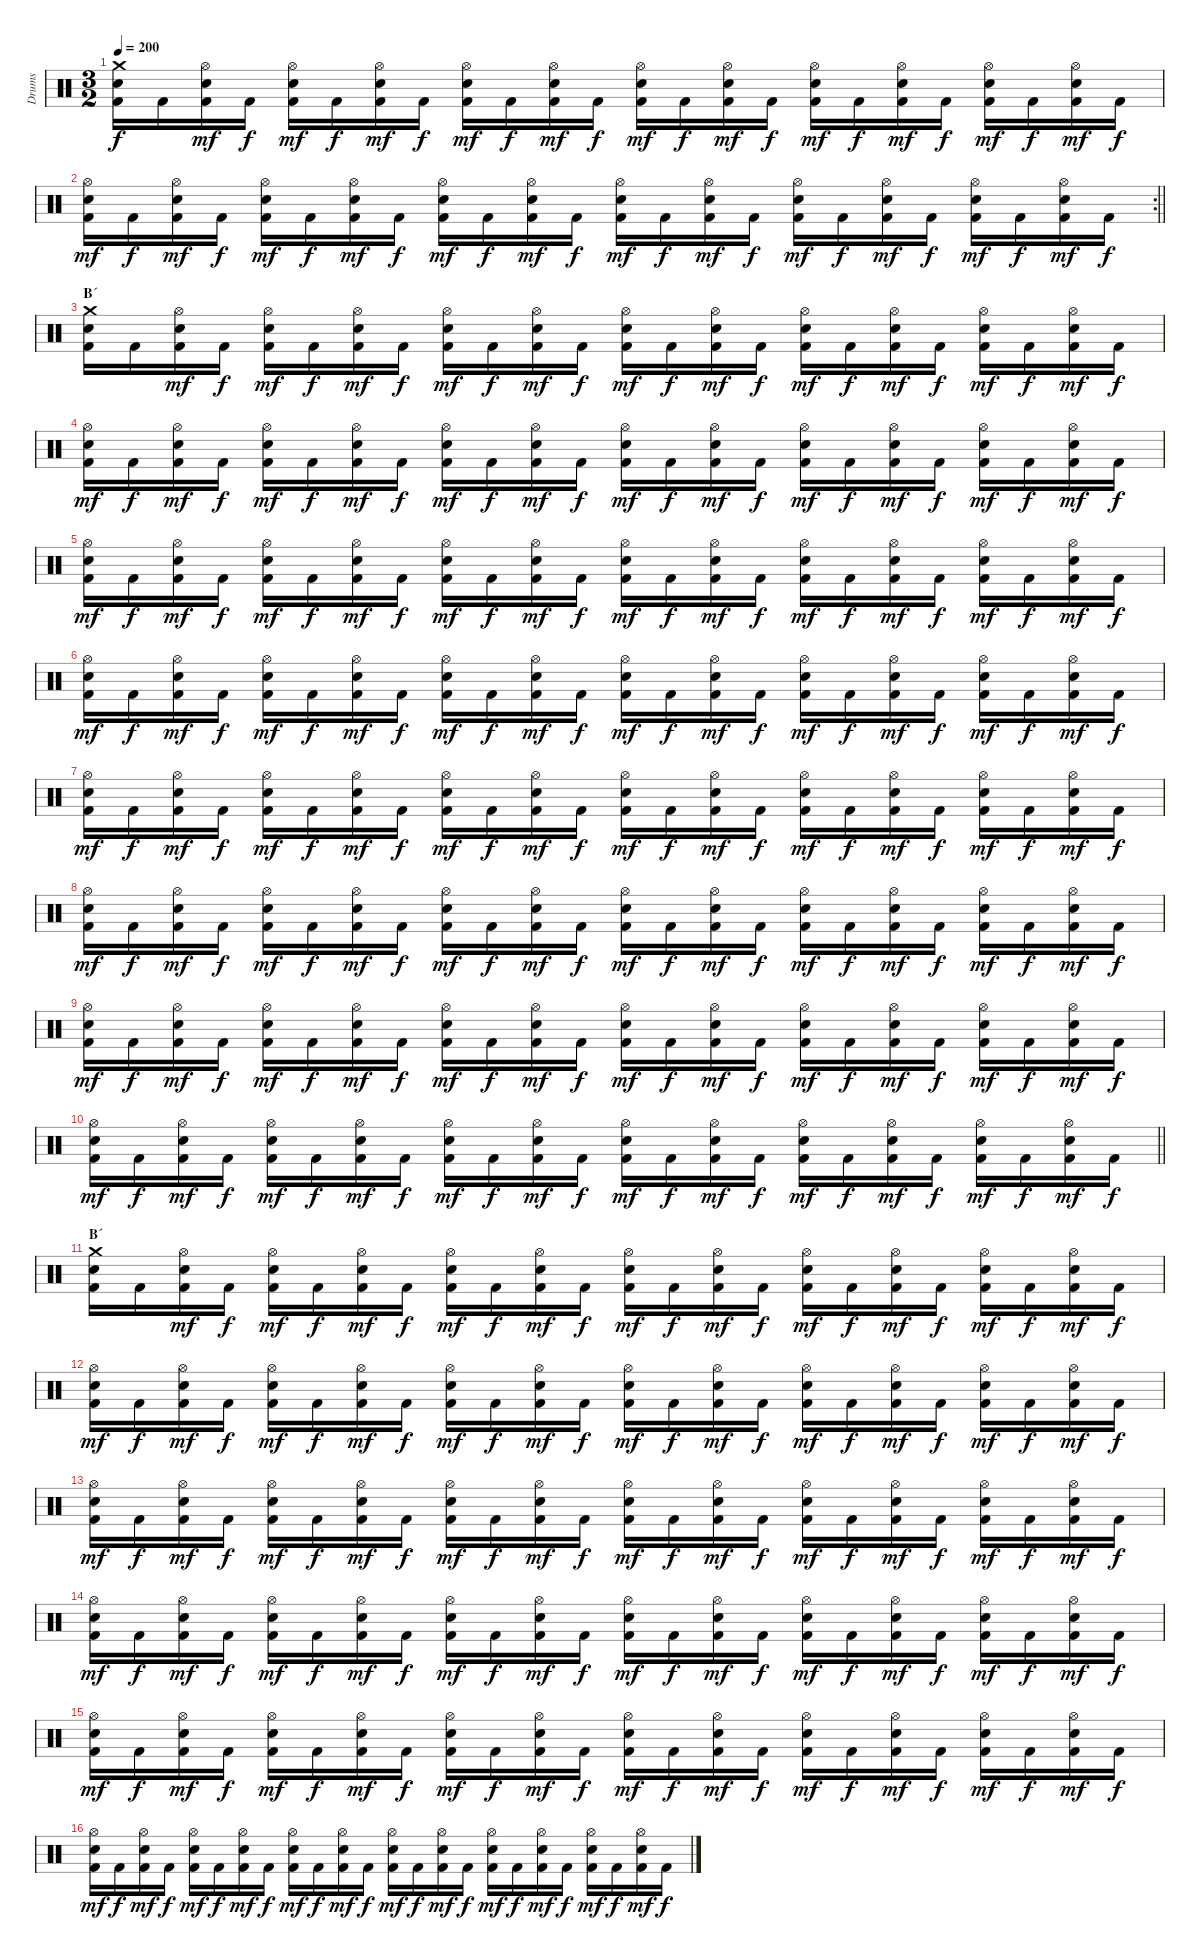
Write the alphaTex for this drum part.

\track ("Drums" "Drums") {instrument percussion}
\staff {score}
\articulation defaults
\ts (3 2)
\tempo 200
\clef neutral
\ks c
("Crash medium (hit)" "Electric Snare (hit)" "Kick (hit) 2").16{dy f} "Kick (hit) 2".16 ("Hi-Hat (open)" "Electric Snare (hit)" "Kick (hit) 2").16{dy mf} "Kick (hit) 2".16{dy f} ("Hi-Hat (open)" "Electric Snare (hit)" "Kick (hit) 2").16{dy mf} "Kick (hit) 2".16{dy f} ("Hi-Hat (open)" "Electric Snare (hit)" "Kick (hit) 2").16{dy mf} "Kick (hit) 2".16{dy f} ("Hi-Hat (open)" "Electric Snare (hit)" "Kick (hit) 2").16{dy mf} "Kick (hit) 2".16{dy f} ("Hi-Hat (open)" "Electric Snare (hit)" "Kick (hit) 2").16{dy mf} "Kick (hit) 2".16{dy f} ("Hi-Hat (open)" "Electric Snare (hit)" "Kick (hit) 2").16{dy mf} "Kick (hit) 2".16{dy f} ("Hi-Hat (open)" "Electric Snare (hit)" "Kick (hit) 2").16{dy mf} "Kick (hit) 2".16{dy f} ("Hi-Hat (open)" "Electric Snare (hit)" "Kick (hit) 2").16{dy mf} "Kick (hit) 2".16{dy f} ("Hi-Hat (open)" "Electric Snare (hit)" "Kick (hit) 2").16{dy mf} "Kick (hit) 2".16{dy f} ("Hi-Hat (open)" "Electric Snare (hit)" "Kick (hit) 2").16{dy mf} "Kick (hit) 2".16{dy f} ("Hi-Hat (open)" "Electric Snare (hit)" "Kick (hit) 2").16{dy mf} "Kick (hit) 2".16{dy f} |
\rc 2
\barLineRight lightlight
("Hi-Hat (open)" "Electric Snare (hit)" "Kick (hit) 2").16{dy mf} "Kick (hit) 2".16{dy f} ("Hi-Hat (open)" "Electric Snare (hit)" "Kick (hit) 2").16{dy mf} "Kick (hit) 2".16{dy f} ("Hi-Hat (open)" "Electric Snare (hit)" "Kick (hit) 2").16{dy mf} "Kick (hit) 2".16{dy f} ("Hi-Hat (open)" "Electric Snare (hit)" "Kick (hit) 2").16{dy mf} "Kick (hit) 2".16{dy f} ("Hi-Hat (open)" "Electric Snare (hit)" "Kick (hit) 2").16{dy mf} "Kick (hit) 2".16{dy f} ("Hi-Hat (open)" "Electric Snare (hit)" "Kick (hit) 2").16{dy mf} "Kick (hit) 2".16{dy f} ("Hi-Hat (open)" "Electric Snare (hit)" "Kick (hit) 2").16{dy mf} "Kick (hit) 2".16{dy f} ("Hi-Hat (open)" "Electric Snare (hit)" "Kick (hit) 2").16{dy mf} "Kick (hit) 2".16{dy f} ("Hi-Hat (open)" "Electric Snare (hit)" "Kick (hit) 2").16{dy mf} "Kick (hit) 2".16{dy f} ("Hi-Hat (open)" "Electric Snare (hit)" "Kick (hit) 2").16{dy mf} "Kick (hit) 2".16{dy f} ("Hi-Hat (open)" "Electric Snare (hit)" "Kick (hit) 2").16{dy mf} "Kick (hit) 2".16{dy f} ("Hi-Hat (open)" "Electric Snare (hit)" "Kick (hit) 2").16{dy mf} "Kick (hit) 2".16{dy f} |
\section ("" "B´")
("Crash medium (hit)" "Electric Snare (hit)" "Kick (hit) 2").16 "Kick (hit) 2".16 ("Hi-Hat (open)" "Electric Snare (hit)" "Kick (hit) 2").16{dy mf} "Kick (hit) 2".16{dy f} ("Hi-Hat (open)" "Electric Snare (hit)" "Kick (hit) 2").16{dy mf} "Kick (hit) 2".16{dy f} ("Hi-Hat (open)" "Electric Snare (hit)" "Kick (hit) 2").16{dy mf} "Kick (hit) 2".16{dy f} ("Hi-Hat (open)" "Electric Snare (hit)" "Kick (hit) 2").16{dy mf} "Kick (hit) 2".16{dy f} ("Hi-Hat (open)" "Electric Snare (hit)" "Kick (hit) 2").16{dy mf} "Kick (hit) 2".16{dy f} ("Hi-Hat (open)" "Electric Snare (hit)" "Kick (hit) 2").16{dy mf} "Kick (hit) 2".16{dy f} ("Hi-Hat (open)" "Electric Snare (hit)" "Kick (hit) 2").16{dy mf} "Kick (hit) 2".16{dy f} ("Hi-Hat (open)" "Electric Snare (hit)" "Kick (hit) 2").16{dy mf} "Kick (hit) 2".16{dy f} ("Hi-Hat (open)" "Electric Snare (hit)" "Kick (hit) 2").16{dy mf} "Kick (hit) 2".16{dy f} ("Hi-Hat (open)" "Electric Snare (hit)" "Kick (hit) 2").16{dy mf} "Kick (hit) 2".16{dy f} ("Hi-Hat (open)" "Electric Snare (hit)" "Kick (hit) 2").16{dy mf} "Kick (hit) 2".16{dy f} |
("Hi-Hat (open)" "Electric Snare (hit)" "Kick (hit) 2").16{dy mf} "Kick (hit) 2".16{dy f} ("Hi-Hat (open)" "Electric Snare (hit)" "Kick (hit) 2").16{dy mf} "Kick (hit) 2".16{dy f} ("Hi-Hat (open)" "Electric Snare (hit)" "Kick (hit) 2").16{dy mf} "Kick (hit) 2".16{dy f} ("Hi-Hat (open)" "Electric Snare (hit)" "Kick (hit) 2").16{dy mf} "Kick (hit) 2".16{dy f} ("Hi-Hat (open)" "Electric Snare (hit)" "Kick (hit) 2").16{dy mf} "Kick (hit) 2".16{dy f} ("Hi-Hat (open)" "Electric Snare (hit)" "Kick (hit) 2").16{dy mf} "Kick (hit) 2".16{dy f} ("Hi-Hat (open)" "Electric Snare (hit)" "Kick (hit) 2").16{dy mf} "Kick (hit) 2".16{dy f} ("Hi-Hat (open)" "Electric Snare (hit)" "Kick (hit) 2").16{dy mf} "Kick (hit) 2".16{dy f} ("Hi-Hat (open)" "Electric Snare (hit)" "Kick (hit) 2").16{dy mf} "Kick (hit) 2".16{dy f} ("Hi-Hat (open)" "Electric Snare (hit)" "Kick (hit) 2").16{dy mf} "Kick (hit) 2".16{dy f} ("Hi-Hat (open)" "Electric Snare (hit)" "Kick (hit) 2").16{dy mf} "Kick (hit) 2".16{dy f} ("Hi-Hat (open)" "Electric Snare (hit)" "Kick (hit) 2").16{dy mf} "Kick (hit) 2".16{dy f} |
("Hi-Hat (open)" "Electric Snare (hit)" "Kick (hit) 2").16{dy mf} "Kick (hit) 2".16{dy f} ("Hi-Hat (open)" "Electric Snare (hit)" "Kick (hit) 2").16{dy mf} "Kick (hit) 2".16{dy f} ("Hi-Hat (open)" "Electric Snare (hit)" "Kick (hit) 2").16{dy mf} "Kick (hit) 2".16{dy f} ("Hi-Hat (open)" "Electric Snare (hit)" "Kick (hit) 2").16{dy mf} "Kick (hit) 2".16{dy f} ("Hi-Hat (open)" "Electric Snare (hit)" "Kick (hit) 2").16{dy mf} "Kick (hit) 2".16{dy f} ("Hi-Hat (open)" "Electric Snare (hit)" "Kick (hit) 2").16{dy mf} "Kick (hit) 2".16{dy f} ("Hi-Hat (open)" "Electric Snare (hit)" "Kick (hit) 2").16{dy mf} "Kick (hit) 2".16{dy f} ("Hi-Hat (open)" "Electric Snare (hit)" "Kick (hit) 2").16{dy mf} "Kick (hit) 2".16{dy f} ("Hi-Hat (open)" "Electric Snare (hit)" "Kick (hit) 2").16{dy mf} "Kick (hit) 2".16{dy f} ("Hi-Hat (open)" "Electric Snare (hit)" "Kick (hit) 2").16{dy mf} "Kick (hit) 2".16{dy f} ("Hi-Hat (open)" "Electric Snare (hit)" "Kick (hit) 2").16{dy mf} "Kick (hit) 2".16{dy f} ("Hi-Hat (open)" "Electric Snare (hit)" "Kick (hit) 2").16{dy mf} "Kick (hit) 2".16{dy f} |
("Hi-Hat (open)" "Electric Snare (hit)" "Kick (hit) 2").16{dy mf} "Kick (hit) 2".16{dy f} ("Hi-Hat (open)" "Electric Snare (hit)" "Kick (hit) 2").16{dy mf} "Kick (hit) 2".16{dy f} ("Hi-Hat (open)" "Electric Snare (hit)" "Kick (hit) 2").16{dy mf} "Kick (hit) 2".16{dy f} ("Hi-Hat (open)" "Electric Snare (hit)" "Kick (hit) 2").16{dy mf} "Kick (hit) 2".16{dy f} ("Hi-Hat (open)" "Electric Snare (hit)" "Kick (hit) 2").16{dy mf} "Kick (hit) 2".16{dy f} ("Hi-Hat (open)" "Electric Snare (hit)" "Kick (hit) 2").16{dy mf} "Kick (hit) 2".16{dy f} ("Hi-Hat (open)" "Electric Snare (hit)" "Kick (hit) 2").16{dy mf} "Kick (hit) 2".16{dy f} ("Hi-Hat (open)" "Electric Snare (hit)" "Kick (hit) 2").16{dy mf} "Kick (hit) 2".16{dy f} ("Hi-Hat (open)" "Electric Snare (hit)" "Kick (hit) 2").16{dy mf} "Kick (hit) 2".16{dy f} ("Hi-Hat (open)" "Electric Snare (hit)" "Kick (hit) 2").16{dy mf} "Kick (hit) 2".16{dy f} ("Hi-Hat (open)" "Electric Snare (hit)" "Kick (hit) 2").16{dy mf} "Kick (hit) 2".16{dy f} ("Hi-Hat (open)" "Electric Snare (hit)" "Kick (hit) 2").16{dy mf} "Kick (hit) 2".16{dy f} |
("Hi-Hat (open)" "Electric Snare (hit)" "Kick (hit) 2").16{dy mf} "Kick (hit) 2".16{dy f} ("Hi-Hat (open)" "Electric Snare (hit)" "Kick (hit) 2").16{dy mf} "Kick (hit) 2".16{dy f} ("Hi-Hat (open)" "Electric Snare (hit)" "Kick (hit) 2").16{dy mf} "Kick (hit) 2".16{dy f} ("Hi-Hat (open)" "Electric Snare (hit)" "Kick (hit) 2").16{dy mf} "Kick (hit) 2".16{dy f} ("Hi-Hat (open)" "Electric Snare (hit)" "Kick (hit) 2").16{dy mf} "Kick (hit) 2".16{dy f} ("Hi-Hat (open)" "Electric Snare (hit)" "Kick (hit) 2").16{dy mf} "Kick (hit) 2".16{dy f} ("Hi-Hat (open)" "Electric Snare (hit)" "Kick (hit) 2").16{dy mf} "Kick (hit) 2".16{dy f} ("Hi-Hat (open)" "Electric Snare (hit)" "Kick (hit) 2").16{dy mf} "Kick (hit) 2".16{dy f} ("Hi-Hat (open)" "Electric Snare (hit)" "Kick (hit) 2").16{dy mf} "Kick (hit) 2".16{dy f} ("Hi-Hat (open)" "Electric Snare (hit)" "Kick (hit) 2").16{dy mf} "Kick (hit) 2".16{dy f} ("Hi-Hat (open)" "Electric Snare (hit)" "Kick (hit) 2").16{dy mf} "Kick (hit) 2".16{dy f} ("Hi-Hat (open)" "Electric Snare (hit)" "Kick (hit) 2").16{dy mf} "Kick (hit) 2".16{dy f} |
("Hi-Hat (open)" "Electric Snare (hit)" "Kick (hit) 2").16{dy mf} "Kick (hit) 2".16{dy f} ("Hi-Hat (open)" "Electric Snare (hit)" "Kick (hit) 2").16{dy mf} "Kick (hit) 2".16{dy f} ("Hi-Hat (open)" "Electric Snare (hit)" "Kick (hit) 2").16{dy mf} "Kick (hit) 2".16{dy f} ("Hi-Hat (open)" "Electric Snare (hit)" "Kick (hit) 2").16{dy mf} "Kick (hit) 2".16{dy f} ("Hi-Hat (open)" "Electric Snare (hit)" "Kick (hit) 2").16{dy mf} "Kick (hit) 2".16{dy f} ("Hi-Hat (open)" "Electric Snare (hit)" "Kick (hit) 2").16{dy mf} "Kick (hit) 2".16{dy f} ("Hi-Hat (open)" "Electric Snare (hit)" "Kick (hit) 2").16{dy mf} "Kick (hit) 2".16{dy f} ("Hi-Hat (open)" "Electric Snare (hit)" "Kick (hit) 2").16{dy mf} "Kick (hit) 2".16{dy f} ("Hi-Hat (open)" "Electric Snare (hit)" "Kick (hit) 2").16{dy mf} "Kick (hit) 2".16{dy f} ("Hi-Hat (open)" "Electric Snare (hit)" "Kick (hit) 2").16{dy mf} "Kick (hit) 2".16{dy f} ("Hi-Hat (open)" "Electric Snare (hit)" "Kick (hit) 2").16{dy mf} "Kick (hit) 2".16{dy f} ("Hi-Hat (open)" "Electric Snare (hit)" "Kick (hit) 2").16{dy mf} "Kick (hit) 2".16{dy f} |
("Hi-Hat (open)" "Electric Snare (hit)" "Kick (hit) 2").16{dy mf} "Kick (hit) 2".16{dy f} ("Hi-Hat (open)" "Electric Snare (hit)" "Kick (hit) 2").16{dy mf} "Kick (hit) 2".16{dy f} ("Hi-Hat (open)" "Electric Snare (hit)" "Kick (hit) 2").16{dy mf} "Kick (hit) 2".16{dy f} ("Hi-Hat (open)" "Electric Snare (hit)" "Kick (hit) 2").16{dy mf} "Kick (hit) 2".16{dy f} ("Hi-Hat (open)" "Electric Snare (hit)" "Kick (hit) 2").16{dy mf} "Kick (hit) 2".16{dy f} ("Hi-Hat (open)" "Electric Snare (hit)" "Kick (hit) 2").16{dy mf} "Kick (hit) 2".16{dy f} ("Hi-Hat (open)" "Electric Snare (hit)" "Kick (hit) 2").16{dy mf} "Kick (hit) 2".16{dy f} ("Hi-Hat (open)" "Electric Snare (hit)" "Kick (hit) 2").16{dy mf} "Kick (hit) 2".16{dy f} ("Hi-Hat (open)" "Electric Snare (hit)" "Kick (hit) 2").16{dy mf} "Kick (hit) 2".16{dy f} ("Hi-Hat (open)" "Electric Snare (hit)" "Kick (hit) 2").16{dy mf} "Kick (hit) 2".16{dy f} ("Hi-Hat (open)" "Electric Snare (hit)" "Kick (hit) 2").16{dy mf} "Kick (hit) 2".16{dy f} ("Hi-Hat (open)" "Electric Snare (hit)" "Kick (hit) 2").16{dy mf} "Kick (hit) 2".16{dy f} |
\barLineRight lightlight
("Hi-Hat (open)" "Electric Snare (hit)" "Kick (hit) 2").16{dy mf} "Kick (hit) 2".16{dy f} ("Hi-Hat (open)" "Electric Snare (hit)" "Kick (hit) 2").16{dy mf} "Kick (hit) 2".16{dy f} ("Hi-Hat (open)" "Electric Snare (hit)" "Kick (hit) 2").16{dy mf} "Kick (hit) 2".16{dy f} ("Hi-Hat (open)" "Electric Snare (hit)" "Kick (hit) 2").16{dy mf} "Kick (hit) 2".16{dy f} ("Hi-Hat (open)" "Electric Snare (hit)" "Kick (hit) 2").16{dy mf} "Kick (hit) 2".16{dy f} ("Hi-Hat (open)" "Electric Snare (hit)" "Kick (hit) 2").16{dy mf} "Kick (hit) 2".16{dy f} ("Hi-Hat (open)" "Electric Snare (hit)" "Kick (hit) 2").16{dy mf} "Kick (hit) 2".16{dy f} ("Hi-Hat (open)" "Electric Snare (hit)" "Kick (hit) 2").16{dy mf} "Kick (hit) 2".16{dy f} ("Hi-Hat (open)" "Electric Snare (hit)" "Kick (hit) 2").16{dy mf} "Kick (hit) 2".16{dy f} ("Hi-Hat (open)" "Electric Snare (hit)" "Kick (hit) 2").16{dy mf} "Kick (hit) 2".16{dy f} ("Hi-Hat (open)" "Electric Snare (hit)" "Kick (hit) 2").16{dy mf} "Kick (hit) 2".16{dy f} ("Hi-Hat (open)" "Electric Snare (hit)" "Kick (hit) 2").16{dy mf} "Kick (hit) 2".16{dy f} |
\section ("" "B´")
("Crash medium (hit)" "Electric Snare (hit)" "Kick (hit) 2").16 "Kick (hit) 2".16 ("Hi-Hat (open)" "Electric Snare (hit)" "Kick (hit) 2").16{dy mf} "Kick (hit) 2".16{dy f} ("Hi-Hat (open)" "Electric Snare (hit)" "Kick (hit) 2").16{dy mf} "Kick (hit) 2".16{dy f} ("Hi-Hat (open)" "Electric Snare (hit)" "Kick (hit) 2").16{dy mf} "Kick (hit) 2".16{dy f} ("Hi-Hat (open)" "Electric Snare (hit)" "Kick (hit) 2").16{dy mf} "Kick (hit) 2".16{dy f} ("Hi-Hat (open)" "Electric Snare (hit)" "Kick (hit) 2").16{dy mf} "Kick (hit) 2".16{dy f} ("Hi-Hat (open)" "Electric Snare (hit)" "Kick (hit) 2").16{dy mf} "Kick (hit) 2".16{dy f} ("Hi-Hat (open)" "Electric Snare (hit)" "Kick (hit) 2").16{dy mf} "Kick (hit) 2".16{dy f} ("Hi-Hat (open)" "Electric Snare (hit)" "Kick (hit) 2").16{dy mf} "Kick (hit) 2".16{dy f} ("Hi-Hat (open)" "Electric Snare (hit)" "Kick (hit) 2").16{dy mf} "Kick (hit) 2".16{dy f} ("Hi-Hat (open)" "Electric Snare (hit)" "Kick (hit) 2").16{dy mf} "Kick (hit) 2".16{dy f} ("Hi-Hat (open)" "Electric Snare (hit)" "Kick (hit) 2").16{dy mf} "Kick (hit) 2".16{dy f} |
("Hi-Hat (open)" "Electric Snare (hit)" "Kick (hit) 2").16{dy mf} "Kick (hit) 2".16{dy f} ("Hi-Hat (open)" "Electric Snare (hit)" "Kick (hit) 2").16{dy mf} "Kick (hit) 2".16{dy f} ("Hi-Hat (open)" "Electric Snare (hit)" "Kick (hit) 2").16{dy mf} "Kick (hit) 2".16{dy f} ("Hi-Hat (open)" "Electric Snare (hit)" "Kick (hit) 2").16{dy mf} "Kick (hit) 2".16{dy f} ("Hi-Hat (open)" "Electric Snare (hit)" "Kick (hit) 2").16{dy mf} "Kick (hit) 2".16{dy f} ("Hi-Hat (open)" "Electric Snare (hit)" "Kick (hit) 2").16{dy mf} "Kick (hit) 2".16{dy f} ("Hi-Hat (open)" "Electric Snare (hit)" "Kick (hit) 2").16{dy mf} "Kick (hit) 2".16{dy f} ("Hi-Hat (open)" "Electric Snare (hit)" "Kick (hit) 2").16{dy mf} "Kick (hit) 2".16{dy f} ("Hi-Hat (open)" "Electric Snare (hit)" "Kick (hit) 2").16{dy mf} "Kick (hit) 2".16{dy f} ("Hi-Hat (open)" "Electric Snare (hit)" "Kick (hit) 2").16{dy mf} "Kick (hit) 2".16{dy f} ("Hi-Hat (open)" "Electric Snare (hit)" "Kick (hit) 2").16{dy mf} "Kick (hit) 2".16{dy f} ("Hi-Hat (open)" "Electric Snare (hit)" "Kick (hit) 2").16{dy mf} "Kick (hit) 2".16{dy f} |
("Hi-Hat (open)" "Electric Snare (hit)" "Kick (hit) 2").16{dy mf} "Kick (hit) 2".16{dy f} ("Hi-Hat (open)" "Electric Snare (hit)" "Kick (hit) 2").16{dy mf} "Kick (hit) 2".16{dy f} ("Hi-Hat (open)" "Electric Snare (hit)" "Kick (hit) 2").16{dy mf} "Kick (hit) 2".16{dy f} ("Hi-Hat (open)" "Electric Snare (hit)" "Kick (hit) 2").16{dy mf} "Kick (hit) 2".16{dy f} ("Hi-Hat (open)" "Electric Snare (hit)" "Kick (hit) 2").16{dy mf} "Kick (hit) 2".16{dy f} ("Hi-Hat (open)" "Electric Snare (hit)" "Kick (hit) 2").16{dy mf} "Kick (hit) 2".16{dy f} ("Hi-Hat (open)" "Electric Snare (hit)" "Kick (hit) 2").16{dy mf} "Kick (hit) 2".16{dy f} ("Hi-Hat (open)" "Electric Snare (hit)" "Kick (hit) 2").16{dy mf} "Kick (hit) 2".16{dy f} ("Hi-Hat (open)" "Electric Snare (hit)" "Kick (hit) 2").16{dy mf} "Kick (hit) 2".16{dy f} ("Hi-Hat (open)" "Electric Snare (hit)" "Kick (hit) 2").16{dy mf} "Kick (hit) 2".16{dy f} ("Hi-Hat (open)" "Electric Snare (hit)" "Kick (hit) 2").16{dy mf} "Kick (hit) 2".16{dy f} ("Hi-Hat (open)" "Electric Snare (hit)" "Kick (hit) 2").16{dy mf} "Kick (hit) 2".16{dy f} |
("Hi-Hat (open)" "Electric Snare (hit)" "Kick (hit) 2").16{dy mf} "Kick (hit) 2".16{dy f} ("Hi-Hat (open)" "Electric Snare (hit)" "Kick (hit) 2").16{dy mf} "Kick (hit) 2".16{dy f} ("Hi-Hat (open)" "Electric Snare (hit)" "Kick (hit) 2").16{dy mf} "Kick (hit) 2".16{dy f} ("Hi-Hat (open)" "Electric Snare (hit)" "Kick (hit) 2").16{dy mf} "Kick (hit) 2".16{dy f} ("Hi-Hat (open)" "Electric Snare (hit)" "Kick (hit) 2").16{dy mf} "Kick (hit) 2".16{dy f} ("Hi-Hat (open)" "Electric Snare (hit)" "Kick (hit) 2").16{dy mf} "Kick (hit) 2".16{dy f} ("Hi-Hat (open)" "Electric Snare (hit)" "Kick (hit) 2").16{dy mf} "Kick (hit) 2".16{dy f} ("Hi-Hat (open)" "Electric Snare (hit)" "Kick (hit) 2").16{dy mf} "Kick (hit) 2".16{dy f} ("Hi-Hat (open)" "Electric Snare (hit)" "Kick (hit) 2").16{dy mf} "Kick (hit) 2".16{dy f} ("Hi-Hat (open)" "Electric Snare (hit)" "Kick (hit) 2").16{dy mf} "Kick (hit) 2".16{dy f} ("Hi-Hat (open)" "Electric Snare (hit)" "Kick (hit) 2").16{dy mf} "Kick (hit) 2".16{dy f} ("Hi-Hat (open)" "Electric Snare (hit)" "Kick (hit) 2").16{dy mf} "Kick (hit) 2".16{dy f} |
("Hi-Hat (open)" "Electric Snare (hit)" "Kick (hit) 2").16{dy mf} "Kick (hit) 2".16{dy f} ("Hi-Hat (open)" "Electric Snare (hit)" "Kick (hit) 2").16{dy mf} "Kick (hit) 2".16{dy f} ("Hi-Hat (open)" "Electric Snare (hit)" "Kick (hit) 2").16{dy mf} "Kick (hit) 2".16{dy f} ("Hi-Hat (open)" "Electric Snare (hit)" "Kick (hit) 2").16{dy mf} "Kick (hit) 2".16{dy f} ("Hi-Hat (open)" "Electric Snare (hit)" "Kick (hit) 2").16{dy mf} "Kick (hit) 2".16{dy f} ("Hi-Hat (open)" "Electric Snare (hit)" "Kick (hit) 2").16{dy mf} "Kick (hit) 2".16{dy f} ("Hi-Hat (open)" "Electric Snare (hit)" "Kick (hit) 2").16{dy mf} "Kick (hit) 2".16{dy f} ("Hi-Hat (open)" "Electric Snare (hit)" "Kick (hit) 2").16{dy mf} "Kick (hit) 2".16{dy f} ("Hi-Hat (open)" "Electric Snare (hit)" "Kick (hit) 2").16{dy mf} "Kick (hit) 2".16{dy f} ("Hi-Hat (open)" "Electric Snare (hit)" "Kick (hit) 2").16{dy mf} "Kick (hit) 2".16{dy f} ("Hi-Hat (open)" "Electric Snare (hit)" "Kick (hit) 2").16{dy mf} "Kick (hit) 2".16{dy f} ("Hi-Hat (open)" "Electric Snare (hit)" "Kick (hit) 2").16{dy mf} "Kick (hit) 2".16{dy f} |
("Hi-Hat (open)" "Electric Snare (hit)" "Kick (hit) 2").16{dy mf} "Kick (hit) 2".16{dy f} ("Hi-Hat (open)" "Electric Snare (hit)" "Kick (hit) 2").16{dy mf} "Kick (hit) 2".16{dy f} ("Hi-Hat (open)" "Electric Snare (hit)" "Kick (hit) 2").16{dy mf} "Kick (hit) 2".16{dy f} ("Hi-Hat (open)" "Electric Snare (hit)" "Kick (hit) 2").16{dy mf} "Kick (hit) 2".16{dy f} ("Hi-Hat (open)" "Electric Snare (hit)" "Kick (hit) 2").16{dy mf} "Kick (hit) 2".16{dy f} ("Hi-Hat (open)" "Electric Snare (hit)" "Kick (hit) 2").16{dy mf} "Kick (hit) 2".16{dy f} ("Hi-Hat (open)" "Electric Snare (hit)" "Kick (hit) 2").16{dy mf} "Kick (hit) 2".16{dy f} ("Hi-Hat (open)" "Electric Snare (hit)" "Kick (hit) 2").16{dy mf} "Kick (hit) 2".16{dy f} ("Hi-Hat (open)" "Electric Snare (hit)" "Kick (hit) 2").16{dy mf} "Kick (hit) 2".16{dy f} ("Hi-Hat (open)" "Electric Snare (hit)" "Kick (hit) 2").16{dy mf} "Kick (hit) 2".16{dy f} ("Hi-Hat (open)" "Electric Snare (hit)" "Kick (hit) 2").16{dy mf} "Kick (hit) 2".16{dy f} ("Hi-Hat (open)" "Electric Snare (hit)" "Kick (hit) 2").16{dy mf} "Kick (hit) 2".16{dy f}
